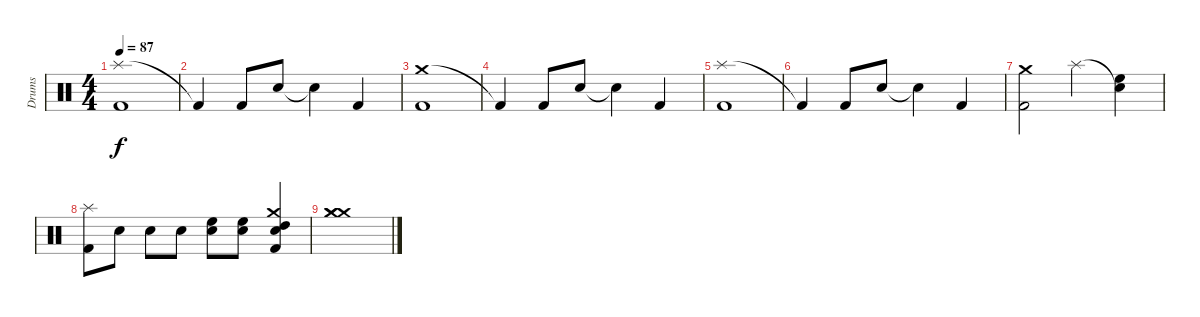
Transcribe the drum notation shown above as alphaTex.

\track ("Drums" "Drums") {instrument percussion}
\staff {score}
\articulation defaults
\ts (4 4)
\tempo 87
\clef neutral
\ks c
("Splash (hit)" "Kick (hit) 2").1{dy f} |
"Kick (hit) 2"{t}.4 "Kick (hit) 2".8 "Snare (hit) 2".8 "Snare (hit)"{t}.4 "Kick (hit) 2".4 |
("Crash medium (hit)" "Kick (hit) 2").1 |
"Kick (hit) 2"{t}.4 "Kick (hit) 2".8 "Snare (hit) 2".8 "Snare (hit)"{t}.4 "Kick (hit) 2".4 |
("Splash (hit)" "Kick (hit) 2").1 |
"Kick (hit) 2"{t}.4 "Kick (hit) 2".8 "Snare (hit) 2".8 "Snare (hit)"{t}.4 "Kick (hit) 2".4 |
("Crash medium (hit)" "Kick (hit) 2").2 "Splash (hit)".4 ("Snare (hit)"{t} "High Floor Tom (hit)").4 |
("Splash (hit)" "Kick (hit) 2").8 "Electric Snare (hit)".8 "Electric Snare (hit)".8 "Electric Snare (hit)".8 ("Electric Snare (hit)" "High Floor Tom (hit)").8 ("Electric Snare (hit)" "High Floor Tom (hit)").8 ("Crash medium (hit)" "Kick (hit) 2" "Electric Snare (hit)" "High Tom (hit)").4 |
("Crash medium (hit)" "Crash medium (hit)" "Crash medium (hit)").1
